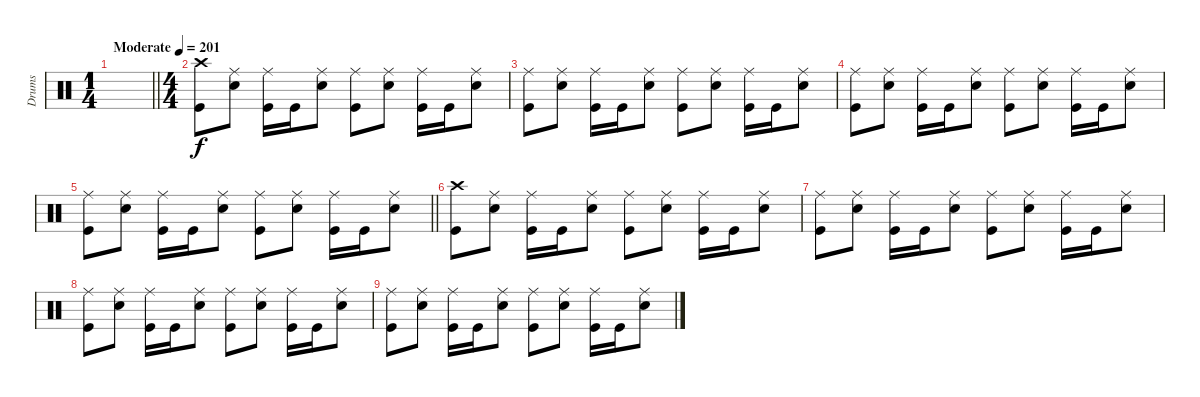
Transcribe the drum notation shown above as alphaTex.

\track ("Drums" "Drums") {instrument percussion}
\staff
\articulation defaults
\ts (1 4)
\tempo (201 "Moderate")
\clef neutral
\barLineRight lightlight
\ks c
|
\ts (4 4)
("Crash high (hit)" "Kick (hit)").8 ("Ride (middle)" "Electric Snare (hit)").8 ("Ride (middle)" "Kick (hit)").16 "Kick (hit)".16 ("Ride (middle)" "Electric Snare (hit)").8 ("Ride (middle)" "Kick (hit)").8 ("Ride (middle)" "Electric Snare (hit)").8 ("Ride (middle)" "Kick (hit)").16 "Kick (hit)".16 ("Ride (middle)" "Electric Snare (hit)").8 |
("Ride (middle)" "Kick (hit)").8 ("Ride (middle)" "Electric Snare (hit)").8 ("Ride (middle)" "Kick (hit)").16 "Kick (hit)".16 ("Ride (middle)" "Electric Snare (hit)").8 ("Ride (middle)" "Kick (hit)").8 ("Ride (middle)" "Electric Snare (hit)").8 ("Ride (middle)" "Kick (hit)").16 "Kick (hit)".16 ("Ride (middle)" "Electric Snare (hit)").8 |
("Ride (middle)" "Kick (hit)").8 ("Ride (middle)" "Electric Snare (hit)").8 ("Ride (middle)" "Kick (hit)").16 "Kick (hit)".16 ("Ride (middle)" "Electric Snare (hit)").8 ("Ride (middle)" "Kick (hit)").8 ("Ride (middle)" "Electric Snare (hit)").8 ("Ride (middle)" "Kick (hit)").16 "Kick (hit)".16 ("Ride (middle)" "Electric Snare (hit)").8 |
\barLineRight lightlight
("Ride (middle)" "Kick (hit)").8 ("Ride (middle)" "Electric Snare (hit)").8 ("Ride (middle)" "Kick (hit)").16 "Kick (hit)".16 ("Ride (middle)" "Electric Snare (hit)").8 ("Ride (middle)" "Kick (hit)").8 ("Ride (middle)" "Electric Snare (hit)").8 ("Ride (middle)" "Kick (hit)").16 "Kick (hit)".16 ("Ride (middle)" "Electric Snare (hit)").8 |
("Crash high (hit)" "Kick (hit)").8 ("Ride (middle)" "Electric Snare (hit)").8 ("Ride (middle)" "Kick (hit)").16 "Kick (hit)".16 ("Ride (middle)" "Electric Snare (hit)").8 ("Ride (middle)" "Kick (hit)").8 ("Ride (middle)" "Electric Snare (hit)").8 ("Ride (middle)" "Kick (hit)").16 "Kick (hit)".16 ("Ride (middle)" "Electric Snare (hit)").8 |
("Ride (middle)" "Kick (hit)").8 ("Ride (middle)" "Electric Snare (hit)").8 ("Ride (middle)" "Kick (hit)").16 "Kick (hit)".16 ("Ride (middle)" "Electric Snare (hit)").8 ("Ride (middle)" "Kick (hit)").8 ("Ride (middle)" "Electric Snare (hit)").8 ("Ride (middle)" "Kick (hit)").16 "Kick (hit)".16 ("Ride (middle)" "Electric Snare (hit)").8 |
("Ride (middle)" "Kick (hit)").8 ("Ride (middle)" "Electric Snare (hit)").8 ("Ride (middle)" "Kick (hit)").16 "Kick (hit)".16 ("Ride (middle)" "Electric Snare (hit)").8 ("Ride (middle)" "Kick (hit)").8 ("Ride (middle)" "Electric Snare (hit)").8 ("Ride (middle)" "Kick (hit)").16 "Kick (hit)".16 ("Ride (middle)" "Electric Snare (hit)").8 |
("Ride (middle)" "Kick (hit)").8 ("Ride (middle)" "Electric Snare (hit)").8 ("Ride (middle)" "Kick (hit)").16 "Kick (hit)".16 ("Ride (middle)" "Electric Snare (hit)").8 ("Ride (middle)" "Kick (hit)").8 ("Ride (middle)" "Electric Snare (hit)").8 ("Ride (middle)" "Kick (hit)").16 "Kick (hit)".16 ("Ride (middle)" "Electric Snare (hit)").8
